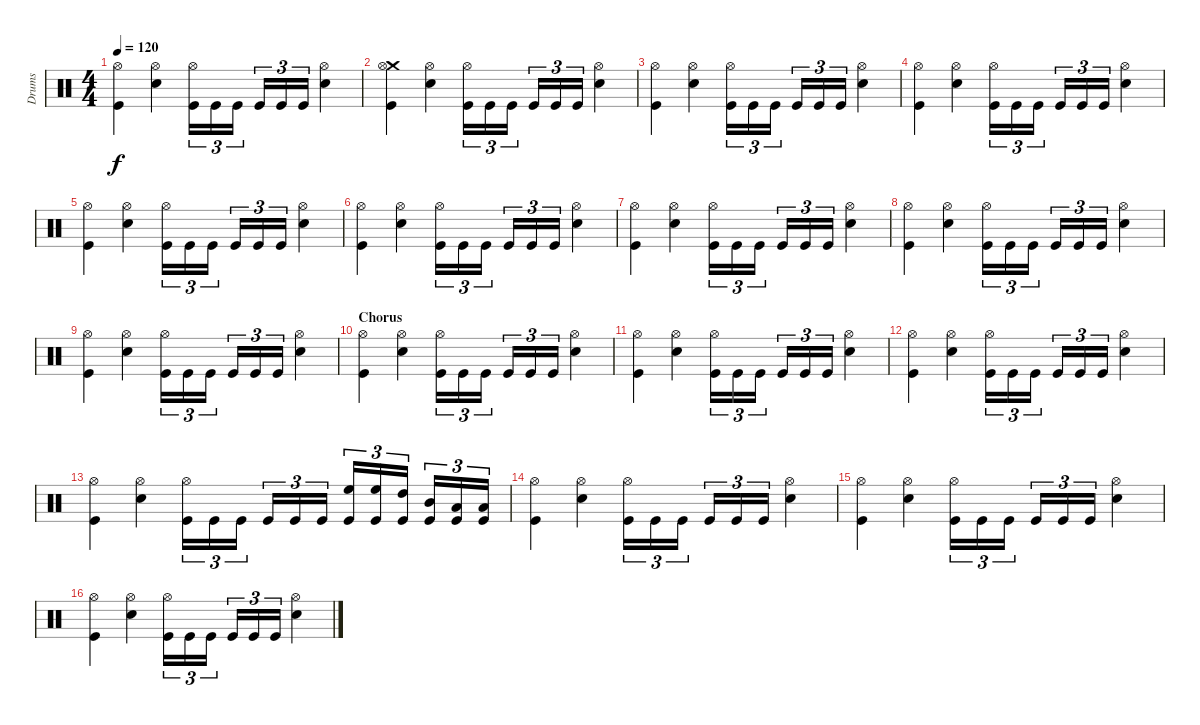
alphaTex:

\track ("Drums" "Drums") {instrument percussion}
\staff {score}
\articulation defaults
\ts (4 4)
\tempo 120
\clef neutral
\ks c
("Hi-Hat (open)" "Kick (hit)").4{dy f} ("Hi-Hat (open)" "Snare (hit) 2").4 ("Hi-Hat (open)" "Kick (hit)").16{tu (3 2)} "Kick (hit)".16{tu (3 2)} "Kick (hit)".16{tu (3 2)} "Kick (hit)".16{tu (3 2)} "Kick (hit)".16{tu (3 2)} "Kick (hit)".16{tu (3 2)} ("Hi-Hat (open)" "Snare (hit) 2").4 |
("Crash medium (hit)" "Hi-Hat (open)" "Kick (hit)").4 ("Hi-Hat (open)" "Snare (hit) 2").4 ("Hi-Hat (open)" "Kick (hit)").16{tu (3 2)} "Kick (hit)".16{tu (3 2)} "Kick (hit)".16{tu (3 2)} "Kick (hit)".16{tu (3 2)} "Kick (hit)".16{tu (3 2)} "Kick (hit)".16{tu (3 2)} ("Hi-Hat (open)" "Snare (hit) 2").4 |
("Hi-Hat (open)" "Kick (hit)").4 ("Hi-Hat (open)" "Snare (hit) 2").4 ("Hi-Hat (open)" "Kick (hit)").16{tu (3 2)} "Kick (hit)".16{tu (3 2)} "Kick (hit)".16{tu (3 2)} "Kick (hit)".16{tu (3 2)} "Kick (hit)".16{tu (3 2)} "Kick (hit)".16{tu (3 2)} ("Hi-Hat (open)" "Snare (hit) 2").4 |
("Hi-Hat (open)" "Kick (hit)").4 ("Hi-Hat (open)" "Snare (hit) 2").4 ("Hi-Hat (open)" "Kick (hit)").16{tu (3 2)} "Kick (hit)".16{tu (3 2)} "Kick (hit)".16{tu (3 2)} "Kick (hit)".16{tu (3 2)} "Kick (hit)".16{tu (3 2)} "Kick (hit)".16{tu (3 2)} ("Hi-Hat (open)" "Snare (hit) 2").4 |
("Hi-Hat (open)" "Kick (hit)").4 ("Hi-Hat (open)" "Snare (hit) 2").4 ("Hi-Hat (open)" "Kick (hit)").16{tu (3 2)} "Kick (hit)".16{tu (3 2)} "Kick (hit)".16{tu (3 2)} "Kick (hit)".16{tu (3 2)} "Kick (hit)".16{tu (3 2)} "Kick (hit)".16{tu (3 2)} ("Hi-Hat (open)" "Snare (hit) 2").4 |
("Hi-Hat (open)" "Kick (hit)").4 ("Hi-Hat (open)" "Snare (hit) 2").4 ("Hi-Hat (open)" "Kick (hit)").16{tu (3 2)} "Kick (hit)".16{tu (3 2)} "Kick (hit)".16{tu (3 2)} "Kick (hit)".16{tu (3 2)} "Kick (hit)".16{tu (3 2)} "Kick (hit)".16{tu (3 2)} ("Hi-Hat (open)" "Snare (hit) 2").4 |
("Hi-Hat (open)" "Kick (hit)").4 ("Hi-Hat (open)" "Snare (hit) 2").4 ("Hi-Hat (open)" "Kick (hit)").16{tu (3 2)} "Kick (hit)".16{tu (3 2)} "Kick (hit)".16{tu (3 2)} "Kick (hit)".16{tu (3 2)} "Kick (hit)".16{tu (3 2)} "Kick (hit)".16{tu (3 2)} ("Hi-Hat (open)" "Snare (hit) 2").4 |
("Hi-Hat (open)" "Kick (hit)").4 ("Hi-Hat (open)" "Snare (hit) 2").4 ("Hi-Hat (open)" "Kick (hit)").16{tu (3 2)} "Kick (hit)".16{tu (3 2)} "Kick (hit)".16{tu (3 2)} "Kick (hit)".16{tu (3 2)} "Kick (hit)".16{tu (3 2)} "Kick (hit)".16{tu (3 2)} ("Hi-Hat (open)" "Snare (hit) 2").4 |
("Hi-Hat (open)" "Kick (hit)").4 ("Hi-Hat (open)" "Snare (hit) 2").4 ("Hi-Hat (open)" "Kick (hit)").16{tu (3 2)} "Kick (hit)".16{tu (3 2)} "Kick (hit)".16{tu (3 2)} "Kick (hit)".16{tu (3 2)} "Kick (hit)".16{tu (3 2)} "Kick (hit)".16{tu (3 2)} ("Hi-Hat (open)" "Snare (hit) 2").4 |
\section ("" "Chorus")
("Hi-Hat (open)" "Kick (hit)").4 ("Hi-Hat (open)" "Snare (hit) 2").4 ("Hi-Hat (open)" "Kick (hit)").16{tu (3 2)} "Kick (hit)".16{tu (3 2)} "Kick (hit)".16{tu (3 2)} "Kick (hit)".16{tu (3 2)} "Kick (hit)".16{tu (3 2)} "Kick (hit)".16{tu (3 2)} ("Hi-Hat (open)" "Snare (hit) 2").4 |
("Hi-Hat (open)" "Kick (hit)").4 ("Hi-Hat (open)" "Snare (hit) 2").4 ("Hi-Hat (open)" "Kick (hit)").16{tu (3 2)} "Kick (hit)".16{tu (3 2)} "Kick (hit)".16{tu (3 2)} "Kick (hit)".16{tu (3 2)} "Kick (hit)".16{tu (3 2)} "Kick (hit)".16{tu (3 2)} ("Hi-Hat (open)" "Snare (hit) 2").4 |
("Hi-Hat (open)" "Kick (hit)").4 ("Hi-Hat (open)" "Snare (hit) 2").4 ("Hi-Hat (open)" "Kick (hit)").16{tu (3 2)} "Kick (hit)".16{tu (3 2)} "Kick (hit)".16{tu (3 2)} "Kick (hit)".16{tu (3 2)} "Kick (hit)".16{tu (3 2)} "Kick (hit)".16{tu (3 2)} ("Hi-Hat (open)" "Snare (hit) 2").4 |
("Hi-Hat (open)" "Kick (hit)").4 ("Hi-Hat (open)" "Snare (hit) 2").4 ("Hi-Hat (open)" "Kick (hit)").16{tu (3 2)} "Kick (hit)".16{tu (3 2)} "Kick (hit)".16{tu (3 2)} "Kick (hit)".16{tu (3 2)} "Kick (hit)".16{tu (3 2)} "Kick (hit)".16{tu (3 2)} ("High Floor Tom (hit)" "Kick (hit)").16{tu (3 2)} ("High Floor Tom (hit)" "Kick (hit)").16{tu (3 2)} ("High Tom (hit)" "Kick (hit)").16{tu (3 2)} ("Mid Tom (hit)" "Kick (hit)").16{tu (3 2)} ("Low Tom (hit)" "Kick (hit)").16{tu (3 2)} ("Low Tom (hit)" "Kick (hit)").16{tu (3 2)} |
("Hi-Hat (open)" "Kick (hit)").4 ("Hi-Hat (open)" "Snare (hit) 2").4 ("Hi-Hat (open)" "Kick (hit)").16{tu (3 2)} "Kick (hit)".16{tu (3 2)} "Kick (hit)".16{tu (3 2)} "Kick (hit)".16{tu (3 2)} "Kick (hit)".16{tu (3 2)} "Kick (hit)".16{tu (3 2)} ("Hi-Hat (open)" "Snare (hit) 2").4 |
("Hi-Hat (open)" "Kick (hit)").4 ("Hi-Hat (open)" "Snare (hit) 2").4 ("Hi-Hat (open)" "Kick (hit)").16{tu (3 2)} "Kick (hit)".16{tu (3 2)} "Kick (hit)".16{tu (3 2)} "Kick (hit)".16{tu (3 2)} "Kick (hit)".16{tu (3 2)} "Kick (hit)".16{tu (3 2)} ("Hi-Hat (open)" "Snare (hit) 2").4 |
("Hi-Hat (open)" "Kick (hit)").4 ("Hi-Hat (open)" "Snare (hit) 2").4 ("Hi-Hat (open)" "Kick (hit)").16{tu (3 2)} "Kick (hit)".16{tu (3 2)} "Kick (hit)".16{tu (3 2)} "Kick (hit)".16{tu (3 2)} "Kick (hit)".16{tu (3 2)} "Kick (hit)".16{tu (3 2)} ("Hi-Hat (open)" "Snare (hit) 2").4
